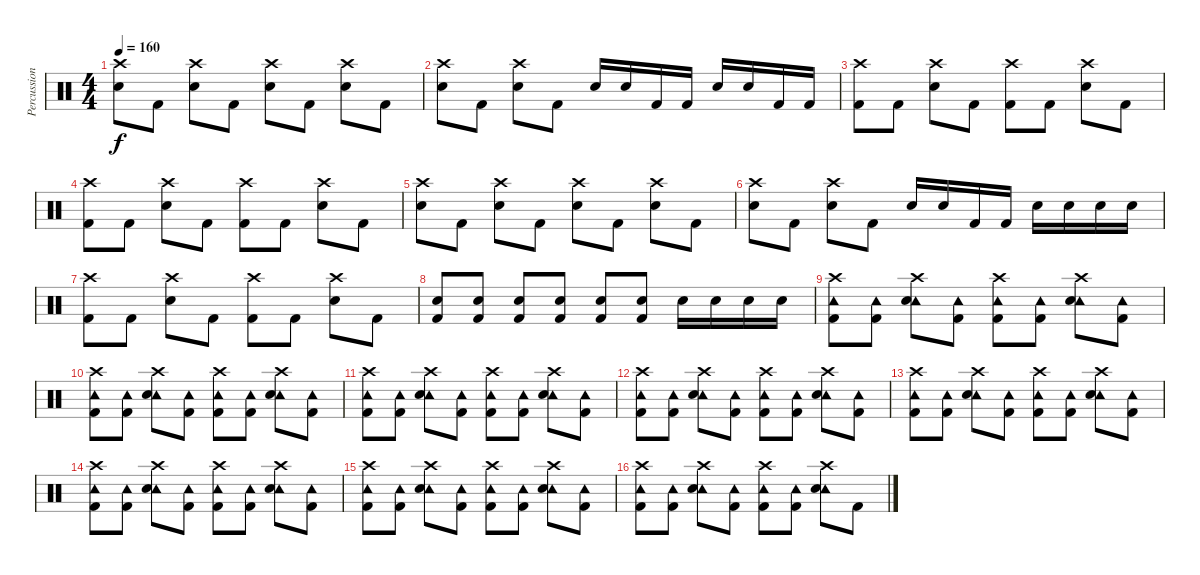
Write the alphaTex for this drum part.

\track ("Percussion" "Percussion") {instrument percussion}
\staff {score}
\articulation defaults
\ts (4 4)
\tempo 160
\clef neutral
\ks c
("Crash high (hit)" "Snare (hit) 2").8{dy f} "Kick (hit) 2".8 ("Crash high (hit)" "Snare (hit) 2").8 "Kick (hit) 2".8 ("Crash high (hit)" "Snare (hit) 2").8 "Kick (hit) 2".8 ("Crash high (hit)" "Snare (hit) 2").8 "Kick (hit) 2".8 |
("Crash high (hit)" "Snare (hit) 2").8 "Kick (hit) 2".8 ("Crash high (hit)" "Snare (hit) 2").8 "Kick (hit) 2".8 "Snare (hit) 2".16 "Snare (hit) 2".16 "Kick (hit) 2".16 "Kick (hit) 2".16 "Snare (hit) 2".16 "Snare (hit) 2".16 "Kick (hit) 2".16 "Kick (hit) 2".16 |
("Crash high (hit)" "Kick (hit) 2").8 "Kick (hit) 2".8 ("Crash high (hit)" "Snare (hit) 2").8 "Kick (hit) 2".8 ("Crash high (hit)" "Kick (hit) 2").8 "Kick (hit) 2".8 ("Crash high (hit)" "Snare (hit) 2").8 "Kick (hit) 2".8 |
("Crash high (hit)" "Kick (hit) 2").8 "Kick (hit) 2".8 ("Crash high (hit)" "Snare (hit) 2").8 "Kick (hit) 2".8 ("Crash high (hit)" "Kick (hit) 2").8 "Kick (hit) 2".8 ("Crash high (hit)" "Snare (hit) 2").8 "Kick (hit) 2".8 |
("Crash high (hit)" "Snare (hit) 2").8 "Kick (hit) 2".8 ("Crash high (hit)" "Snare (hit) 2").8 "Kick (hit) 2".8 ("Crash high (hit)" "Snare (hit) 2").8 "Kick (hit) 2".8 ("Crash high (hit)" "Snare (hit) 2").8 "Kick (hit) 2".8 |
("Crash high (hit)" "Snare (hit) 2").8 "Kick (hit) 2".8 ("Crash high (hit)" "Snare (hit) 2").8 "Kick (hit) 2".8 "Snare (hit) 2".16 "Snare (hit) 2".16 "Kick (hit) 2".16 "Kick (hit) 2".16 "Snare (hit) 2".16 "Snare (hit) 2".16 "Snare (hit) 2".16 "Snare (hit) 2".16 |
("Crash high (hit)" "Kick (hit) 2").8 "Kick (hit) 2".8 ("Crash high (hit)" "Snare (hit) 2").8 "Kick (hit) 2".8 ("Crash high (hit)" "Kick (hit) 2").8 "Kick (hit) 2".8 ("Crash high (hit)" "Snare (hit) 2").8 "Kick (hit) 2".8 |
("Snare (hit) 2" "Kick (hit) 2").8 ("Snare (hit) 2" "Kick (hit) 2").8 ("Snare (hit) 2" "Kick (hit) 2").8 ("Snare (hit) 2" "Kick (hit) 2").8 ("Snare (hit) 2" "Kick (hit) 2").8 ("Snare (hit) 2" "Kick (hit) 2").8 "Snare (hit) 2".16 "Snare (hit) 2".16 "Snare (hit) 2".16 "Snare (hit) 2".16 |
("Tambourine (hit)" "Crash high (hit)" "Kick (hit) 2").8 ("Tambourine (hit)" "Kick (hit) 2").8 ("Tambourine (hit)" "Crash high (hit)" "Snare (hit) 2").8 ("Tambourine (hit)" "Kick (hit) 2").8 ("Tambourine (hit)" "Crash high (hit)" "Kick (hit) 2").8 ("Tambourine (hit)" "Kick (hit) 2").8 ("Tambourine (hit)" "Crash high (hit)" "Snare (hit) 2").8 ("Tambourine (hit)" "Kick (hit) 2").8 |
("Tambourine (hit)" "Crash high (hit)" "Kick (hit) 2").8 ("Tambourine (hit)" "Kick (hit) 2").8 ("Tambourine (hit)" "Crash high (hit)" "Snare (hit) 2").8 ("Tambourine (hit)" "Kick (hit) 2").8 ("Tambourine (hit)" "Crash high (hit)" "Kick (hit) 2").8 ("Tambourine (hit)" "Kick (hit) 2").8 ("Tambourine (hit)" "Crash high (hit)" "Snare (hit) 2").8 ("Tambourine (hit)" "Kick (hit) 2").8 |
("Tambourine (hit)" "Crash high (hit)" "Kick (hit) 2").8 ("Tambourine (hit)" "Kick (hit) 2").8 ("Tambourine (hit)" "Crash high (hit)" "Snare (hit) 2").8 ("Tambourine (hit)" "Kick (hit) 2").8 ("Tambourine (hit)" "Crash high (hit)" "Kick (hit) 2").8 ("Tambourine (hit)" "Kick (hit) 2").8 ("Tambourine (hit)" "Crash high (hit)" "Snare (hit) 2").8 ("Tambourine (hit)" "Kick (hit) 2").8 |
("Tambourine (hit)" "Crash high (hit)" "Kick (hit) 2").8 ("Tambourine (hit)" "Kick (hit) 2").8 ("Tambourine (hit)" "Crash high (hit)" "Snare (hit) 2").8 ("Tambourine (hit)" "Kick (hit) 2").8 ("Tambourine (hit)" "Crash high (hit)" "Kick (hit) 2").8 ("Tambourine (hit)" "Kick (hit) 2").8 ("Tambourine (hit)" "Crash high (hit)" "Snare (hit) 2").8 ("Tambourine (hit)" "Kick (hit) 2").8 |
("Tambourine (hit)" "Crash high (hit)" "Kick (hit) 2").8 ("Tambourine (hit)" "Kick (hit) 2").8 ("Tambourine (hit)" "Crash high (hit)" "Snare (hit) 2").8 ("Tambourine (hit)" "Kick (hit) 2").8 ("Tambourine (hit)" "Crash high (hit)" "Kick (hit) 2").8 ("Tambourine (hit)" "Kick (hit) 2").8 ("Tambourine (hit)" "Crash high (hit)" "Snare (hit) 2").8 ("Tambourine (hit)" "Kick (hit) 2").8 |
("Tambourine (hit)" "Crash high (hit)" "Kick (hit) 2").8 ("Tambourine (hit)" "Kick (hit) 2").8 ("Tambourine (hit)" "Crash high (hit)" "Snare (hit) 2").8 ("Tambourine (hit)" "Kick (hit) 2").8 ("Tambourine (hit)" "Crash high (hit)" "Kick (hit) 2").8 ("Tambourine (hit)" "Kick (hit) 2").8 ("Tambourine (hit)" "Crash high (hit)" "Snare (hit) 2").8 ("Tambourine (hit)" "Kick (hit) 2").8 |
("Tambourine (hit)" "Crash high (hit)" "Kick (hit) 2").8 ("Tambourine (hit)" "Kick (hit) 2").8 ("Tambourine (hit)" "Crash high (hit)" "Snare (hit) 2").8 ("Tambourine (hit)" "Kick (hit) 2").8 ("Tambourine (hit)" "Crash high (hit)" "Kick (hit) 2").8 ("Tambourine (hit)" "Kick (hit) 2").8 ("Tambourine (hit)" "Crash high (hit)" "Snare (hit) 2").8 ("Tambourine (hit)" "Kick (hit) 2").8 |
("Tambourine (hit)" "Crash high (hit)" "Kick (hit) 2").8 ("Tambourine (hit)" "Kick (hit) 2").8 ("Tambourine (hit)" "Crash high (hit)" "Snare (hit) 2").8 ("Tambourine (hit)" "Kick (hit) 2").8 ("Tambourine (hit)" "Crash high (hit)" "Kick (hit) 2").8 ("Tambourine (hit)" "Kick (hit) 2").8 ("Tambourine (hit)" "Crash high (hit)" "Snare (hit) 2").8 "Kick (hit) 2".8
